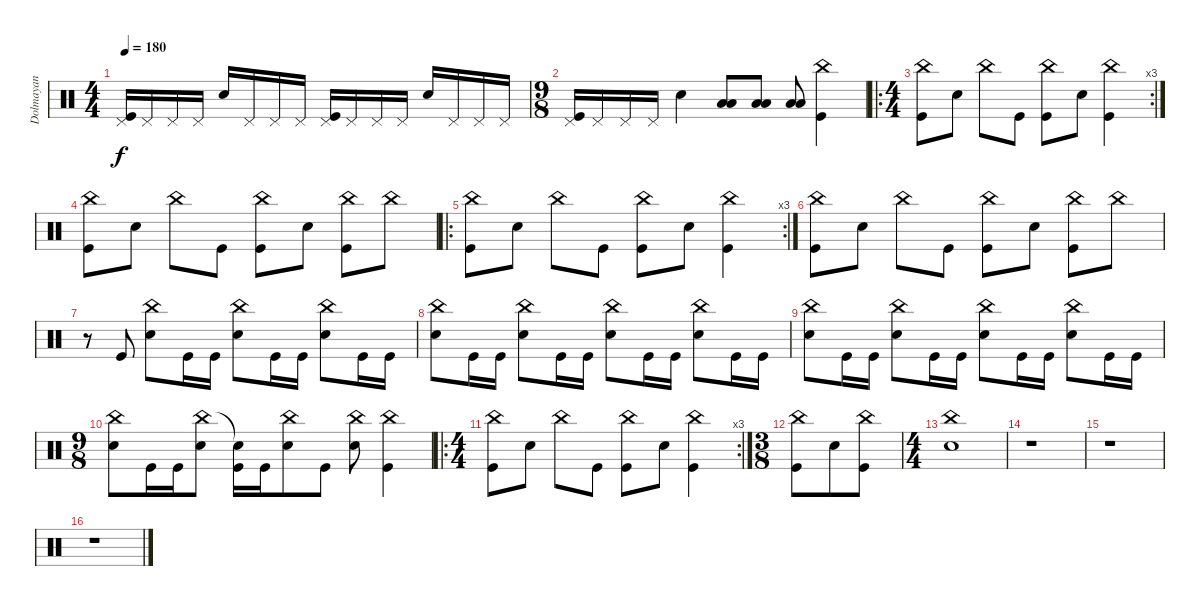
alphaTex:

\track ("Dolmayan" "Dolmayan") {instrument percussion}
\staff {score}
\articulation defaults
\ts (4 4)
\tempo 180
\clef neutral
\ks c
("Pedal Hi-Hat (hit)" "Kick (hit)").16{dy f} "Pedal Hi-Hat (hit)".16 "Pedal Hi-Hat (hit)".16 "Pedal Hi-Hat (hit)".16 "Snare (hit) 2".16 "Pedal Hi-Hat (hit)".16 "Pedal Hi-Hat (hit)".16 "Pedal Hi-Hat (hit)".16 ("Pedal Hi-Hat (hit)" "Kick (hit)").16 "Pedal Hi-Hat (hit)".16 "Pedal Hi-Hat (hit)".16 "Pedal Hi-Hat (hit)".16 "Snare (hit) 2".16 "Pedal Hi-Hat (hit)".16 "Pedal Hi-Hat (hit)".16 "Pedal Hi-Hat (hit)".16 |
\ts (9 8)
("Pedal Hi-Hat (hit)" "Kick (hit)").16 "Pedal Hi-Hat (hit)".16 "Pedal Hi-Hat (hit)".16 "Pedal Hi-Hat (hit)".16 "Snare (hit) 2".4 ("Low Tom (hit)" "Low Floor Tom (hit)").8 ("Low Tom (hit)" "Low Floor Tom (hit)").8 ("Low Tom (hit)" "Low Floor Tom (hit)").8 ("China (hit)" "Kick (hit)").4 |
\ro
\rc 3
\ts (4 4)
("China (hit)" "Kick (hit)").8 "Snare (hit) 2".8 "China (hit)".8 "Kick (hit)".8 ("China (hit)" "Kick (hit)").8 "Snare (hit) 2".8 ("China (hit)" "Kick (hit)").4 |
("China (hit)" "Kick (hit)").8 "Snare (hit) 2".8 "China (hit)".8 "Kick (hit)".8 ("China (hit)" "Kick (hit)").8 "Snare (hit) 2".8 ("China (hit)" "Kick (hit)").8 "China (hit)".8 |
\ro
\rc 3
("China (hit)" "Kick (hit)").8 "Snare (hit) 2".8 "China (hit)".8 "Kick (hit)".8 ("China (hit)" "Kick (hit)").8 "Snare (hit) 2".8 ("China (hit)" "Kick (hit)").4 |
("China (hit)" "Kick (hit)").8 "Snare (hit) 2".8 "China (hit)".8 "Kick (hit)".8 ("China (hit)" "Kick (hit)").8 "Snare (hit) 2".8 ("China (hit)" "Kick (hit)").8 "China (hit)".8 |
r.8 "Kick (hit)".8 ("China (hit)" "Snare (hit) 2").8 "Kick (hit)".16 "Kick (hit)".16 ("China (hit)" "Snare (hit) 2").8 "Kick (hit)".16 "Kick (hit)".16 ("China (hit)" "Snare (hit) 2").8 "Kick (hit)".16 "Kick (hit)".16 |
("China (hit)" "Snare (hit) 2").8 "Kick (hit)".16 "Kick (hit)".16 ("China (hit)" "Snare (hit) 2").8 "Kick (hit)".16 "Kick (hit)".16 ("China (hit)" "Snare (hit) 2").8 "Kick (hit)".16 "Kick (hit)".16 ("China (hit)" "Snare (hit) 2").8 "Kick (hit)".16 "Kick (hit)".16 |
("China (hit)" "Snare (hit) 2").8 "Kick (hit)".16 "Kick (hit)".16 ("China (hit)" "Snare (hit) 2").8 "Kick (hit)".16 "Kick (hit)".16 ("China (hit)" "Snare (hit) 2").8 "Kick (hit)".16 "Kick (hit)".16 ("China (hit)" "Snare (hit) 2").8 "Kick (hit)".16 "Kick (hit)".16 |
\ts (9 8)
("China (hit)" "Snare (hit) 2").8 "Kick (hit)".16 "Kick (hit)".16 ("China (hit)" "Snare (hit) 2").8 ("Snare (hit)"{t} "Kick (hit)").16 "Kick (hit)".16 ("China (hit)" "Snare (hit) 2").8 "Kick (hit)".8 ("China (hit)" "Snare (hit) 2").8 ("China (hit)" "Kick (hit)").4 |
\ro
\rc 3
\ts (4 4)
("China (hit)" "Kick (hit)").8 "Snare (hit) 2".8 "China (hit)".8 "Kick (hit)".8 ("China (hit)" "Kick (hit)").8 "Snare (hit) 2".8 ("China (hit)" "Kick (hit)").4 |
\ts (3 8)
("China (hit)" "Kick (hit)").8 "Snare (hit) 2".8 ("China (hit)" "Kick (hit)").8 |
\ts (4 4)
("China (hit)" "Snare (hit) 2").1 |
r.1 |
r.1 |
r.1
